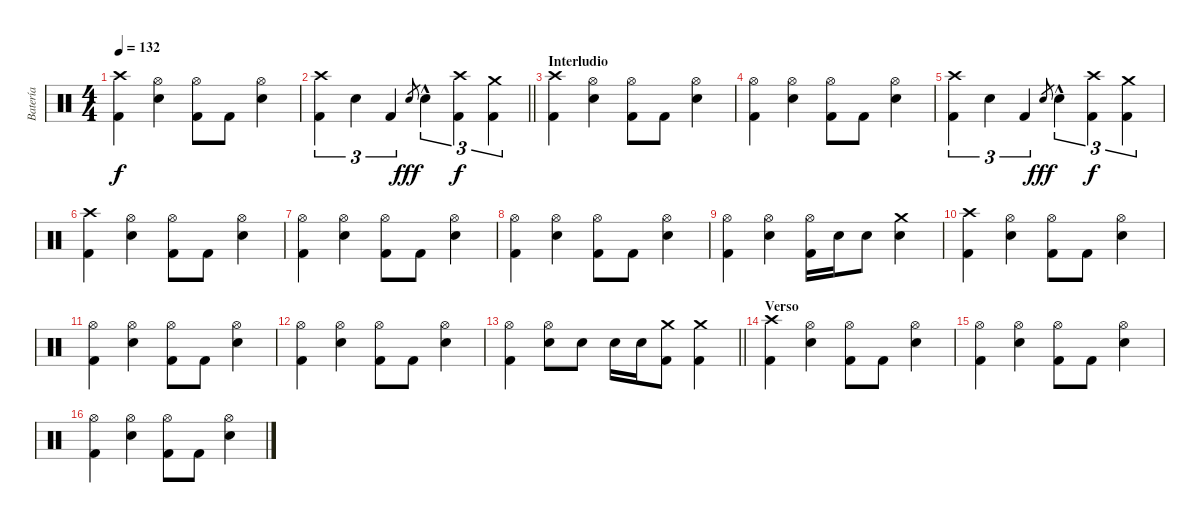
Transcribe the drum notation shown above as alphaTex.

\track ("Batería" "Batería") {instrument percussion}
\staff {score}
\articulation defaults
\ts (4 4)
\tempo 132
\clef neutral
\ks c
("Crash high (hit)" "Kick (hit) 2").4{dy f} ("Hi-Hat (open)" "Electric Snare (hit)").4 ("Kick (hit) 2" "Hi-Hat (open)").8 "Kick (hit) 2".8 ("Hi-Hat (open)" "Electric Snare (hit)").4 |
\barLineRight lightlight
("Crash high (hit)" "Kick (hit) 2").4{tu (3 2)} "Electric Snare (hit)".4{tu (3 2)} "Kick (hit) 2".4{tu (3 2)} "Electric Snare (hit)".8{gr dy fff} "Electric Snare (hit)"{hac}.4{tu (3 2)} ("Kick (hit) 2" "Crash high (hit)").4{tu (3 2) dy f} ("Kick (hit) 2" "Crash medium (hit)").4{tu (3 2)} |
\section ("" "Interludio")
("Crash high (hit)" "Kick (hit) 2").4 ("Hi-Hat (open)" "Electric Snare (hit)").4 ("Kick (hit) 2" "Hi-Hat (open)").8 "Kick (hit) 2".8 ("Hi-Hat (open)" "Electric Snare (hit)").4 |
("Hi-Hat (open)" "Kick (hit) 2").4 ("Hi-Hat (open)" "Electric Snare (hit)").4 ("Kick (hit) 2" "Hi-Hat (open)").8 "Kick (hit) 2".8 ("Hi-Hat (open)" "Electric Snare (hit)").4 |
("Crash high (hit)" "Kick (hit) 2").4{tu (3 2)} "Electric Snare (hit)".4{tu (3 2)} "Kick (hit) 2".4{tu (3 2)} "Electric Snare (hit)".8{gr dy fff} "Electric Snare (hit)"{hac}.4{tu (3 2)} ("Kick (hit) 2" "Crash high (hit)").4{tu (3 2) dy f} ("Kick (hit) 2" "Crash medium (hit)").4{tu (3 2)} |
("Crash high (hit)" "Kick (hit) 2").4 ("Hi-Hat (open)" "Electric Snare (hit)").4 ("Kick (hit) 2" "Hi-Hat (open)").8 "Kick (hit) 2".8 ("Hi-Hat (open)" "Electric Snare (hit)").4 |
("Hi-Hat (open)" "Kick (hit) 2").4 ("Hi-Hat (open)" "Electric Snare (hit)").4 ("Kick (hit) 2" "Hi-Hat (open)").8 "Kick (hit) 2".8 ("Hi-Hat (open)" "Electric Snare (hit)").4 |
("Hi-Hat (open)" "Kick (hit) 2").4 ("Hi-Hat (open)" "Electric Snare (hit)").4 ("Kick (hit) 2" "Hi-Hat (open)").8 "Kick (hit) 2".8 ("Hi-Hat (open)" "Electric Snare (hit)").4 |
("Hi-Hat (open)" "Kick (hit) 2").4 ("Hi-Hat (open)" "Electric Snare (hit)").4 ("Hi-Hat (open)" "Kick (hit) 2").16 "Electric Snare (hit)".16 "Electric Snare (hit)".8 ("Electric Snare (hit)" "Crash medium (hit)").4 |
("Crash high (hit)" "Kick (hit) 2").4 ("Hi-Hat (open)" "Electric Snare (hit)").4 ("Kick (hit) 2" "Hi-Hat (open)").8 "Kick (hit) 2".8 ("Hi-Hat (open)" "Electric Snare (hit)").4 |
("Hi-Hat (open)" "Kick (hit) 2").4 ("Hi-Hat (open)" "Electric Snare (hit)").4 ("Kick (hit) 2" "Hi-Hat (open)").8 "Kick (hit) 2".8 ("Hi-Hat (open)" "Electric Snare (hit)").4 |
("Hi-Hat (open)" "Kick (hit) 2").4 ("Hi-Hat (open)" "Electric Snare (hit)").4 ("Kick (hit) 2" "Hi-Hat (open)").8 "Kick (hit) 2".8 ("Hi-Hat (open)" "Electric Snare (hit)").4 |
\barLineRight lightlight
("Hi-Hat (open)" "Kick (hit) 2").4 ("Hi-Hat (open)" "Electric Snare (hit)").8 "Electric Snare (hit)".8 "Electric Snare (hit)".16 "Electric Snare (hit)".16 ("Kick (hit) 2" "Crash medium (hit)").8 ("Kick (hit) 2" "Crash medium (hit)").4 |
\section ("" "Verso")
("Crash high (hit)" "Kick (hit) 2").4 ("Hi-Hat (open)" "Electric Snare (hit)").4 ("Kick (hit) 2" "Hi-Hat (open)").8 "Kick (hit) 2".8 ("Hi-Hat (open)" "Electric Snare (hit)").4 |
("Hi-Hat (open)" "Kick (hit) 2").4 ("Hi-Hat (open)" "Electric Snare (hit)").4 ("Kick (hit) 2" "Hi-Hat (open)").8 "Kick (hit) 2".8 ("Hi-Hat (open)" "Electric Snare (hit)").4 |
("Hi-Hat (open)" "Kick (hit) 2").4 ("Hi-Hat (open)" "Electric Snare (hit)").4 ("Kick (hit) 2" "Hi-Hat (open)").8 "Kick (hit) 2".8 ("Hi-Hat (open)" "Electric Snare (hit)").4
